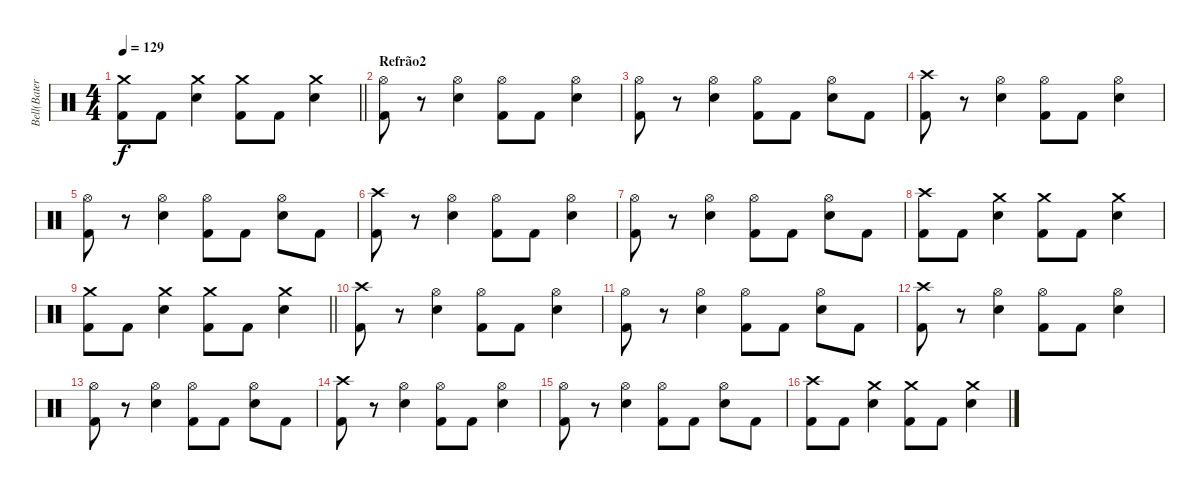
\track ("Bell(Bateria)" "Bell(Bater") {instrument percussion}
\staff {score}
\articulation defaults
\ts (4 4)
\tempo 129
\clef neutral
\barLineRight lightlight
\ks c
("Crash medium (hit)" "Kick (hit) 2").8{dy f} "Kick (hit) 2".8 ("Crash medium (hit)" "Electric Snare (hit)").4 ("Crash medium (hit)" "Kick (hit) 2").8 "Kick (hit) 2".8 ("Crash medium (hit)" "Electric Snare (hit)").4 |
\section ("" "Refrão2")
("Hi-Hat (open)" "Kick (hit) 2").8 r.8 ("Hi-Hat (open)" "Electric Snare (hit)").4 ("Hi-Hat (open)" "Kick (hit) 2").8 "Kick (hit) 2".8 ("Hi-Hat (open)" "Electric Snare (hit)").4 |
("Hi-Hat (open)" "Kick (hit) 2").8 r.8 ("Hi-Hat (open)" "Electric Snare (hit)").4 ("Hi-Hat (open)" "Kick (hit) 2").8 "Kick (hit) 2".8 ("Hi-Hat (open)" "Electric Snare (hit)").8 "Kick (hit) 2".8 |
("Crash high (hit)" "Kick (hit) 2").8 r.8 ("Hi-Hat (open)" "Electric Snare (hit)").4 ("Hi-Hat (open)" "Kick (hit) 2").8 "Kick (hit) 2".8 ("Hi-Hat (open)" "Electric Snare (hit)").4 |
("Hi-Hat (open)" "Kick (hit) 2").8 r.8 ("Hi-Hat (open)" "Electric Snare (hit)").4 ("Hi-Hat (open)" "Kick (hit) 2").8 "Kick (hit) 2".8 ("Hi-Hat (open)" "Electric Snare (hit)").8 "Kick (hit) 2".8 |
("Crash high (hit)" "Kick (hit) 2").8 r.8 ("Hi-Hat (open)" "Electric Snare (hit)").4 ("Hi-Hat (open)" "Kick (hit) 2").8 "Kick (hit) 2".8 ("Hi-Hat (open)" "Electric Snare (hit)").4 |
("Hi-Hat (open)" "Kick (hit) 2").8 r.8 ("Hi-Hat (open)" "Electric Snare (hit)").4 ("Hi-Hat (open)" "Kick (hit) 2").8 "Kick (hit) 2".8 ("Hi-Hat (open)" "Electric Snare (hit)").8 "Kick (hit) 2".8 |
("Crash high (hit)" "Kick (hit) 2").8 "Kick (hit) 2".8 ("Crash medium (hit)" "Electric Snare (hit)").4 ("Crash medium (hit)" "Kick (hit) 2").8 "Kick (hit) 2".8 ("Crash medium (hit)" "Electric Snare (hit)").4 |
\barLineRight lightlight
("Crash medium (hit)" "Kick (hit) 2").8 "Kick (hit) 2".8 ("Crash medium (hit)" "Electric Snare (hit)").4 ("Crash medium (hit)" "Kick (hit) 2").8 "Kick (hit) 2".8 ("Crash medium (hit)" "Electric Snare (hit)").4 |
("Crash high (hit)" "Kick (hit) 2").8 r.8 ("Hi-Hat (open)" "Electric Snare (hit)").4 ("Hi-Hat (open)" "Kick (hit) 2").8 "Kick (hit) 2".8 ("Hi-Hat (open)" "Electric Snare (hit)").4 |
("Hi-Hat (open)" "Kick (hit) 2").8 r.8 ("Hi-Hat (open)" "Electric Snare (hit)").4 ("Hi-Hat (open)" "Kick (hit) 2").8 "Kick (hit) 2".8 ("Hi-Hat (open)" "Electric Snare (hit)").8 "Kick (hit) 2".8 |
("Crash high (hit)" "Kick (hit) 2").8 r.8 ("Hi-Hat (open)" "Electric Snare (hit)").4 ("Hi-Hat (open)" "Kick (hit) 2").8 "Kick (hit) 2".8 ("Hi-Hat (open)" "Electric Snare (hit)").4 |
("Hi-Hat (open)" "Kick (hit) 2").8 r.8 ("Hi-Hat (open)" "Electric Snare (hit)").4 ("Hi-Hat (open)" "Kick (hit) 2").8 "Kick (hit) 2".8 ("Hi-Hat (open)" "Electric Snare (hit)").8 "Kick (hit) 2".8 |
("Crash high (hit)" "Kick (hit) 2").8 r.8 ("Hi-Hat (open)" "Electric Snare (hit)").4 ("Hi-Hat (open)" "Kick (hit) 2").8 "Kick (hit) 2".8 ("Hi-Hat (open)" "Electric Snare (hit)").4 |
("Hi-Hat (open)" "Kick (hit) 2").8 r.8 ("Hi-Hat (open)" "Electric Snare (hit)").4 ("Hi-Hat (open)" "Kick (hit) 2").8 "Kick (hit) 2".8 ("Hi-Hat (open)" "Electric Snare (hit)").8 "Kick (hit) 2".8 |
("Crash high (hit)" "Kick (hit) 2").8 "Kick (hit) 2".8 ("Crash medium (hit)" "Electric Snare (hit)").4 ("Crash medium (hit)" "Kick (hit) 2").8 "Kick (hit) 2".8 ("Crash medium (hit)" "Electric Snare (hit)").4
